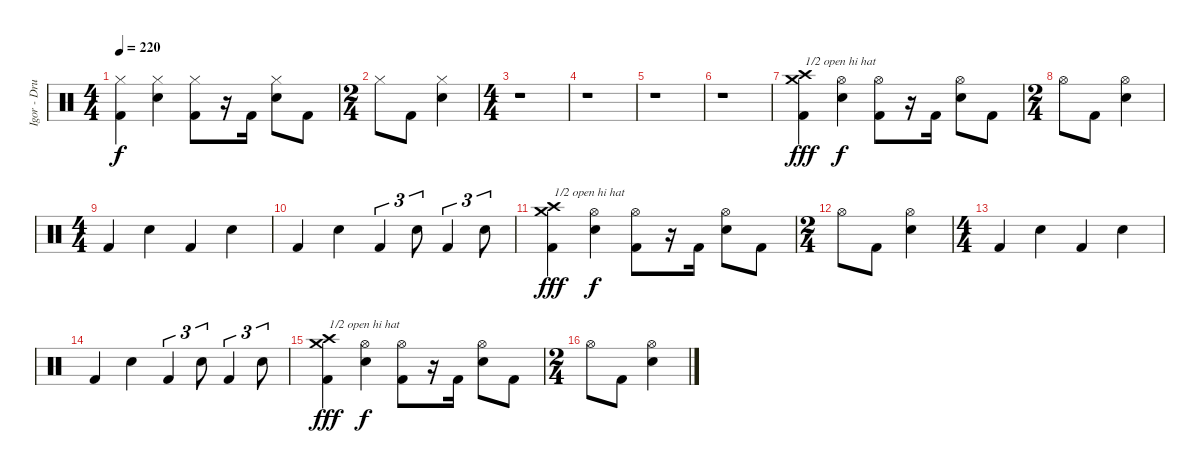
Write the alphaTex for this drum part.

\track ("Igor - Drums" "Igor - Dru") {instrument percussion}
\staff {score}
\articulation defaults
\ts (4 4)
\tempo 220
\clef neutral
\ks c
("Hi-Hat (closed)" "Kick (hit) 2").4{dy f} ("Hi-Hat (closed)" "Electric Snare (hit)").4 ("Hi-Hat (closed)" "Kick (hit) 2").8 r.16 "Kick (hit) 2".16 ("Hi-Hat (closed)" "Electric Snare (hit)").8 "Kick (hit) 2".8 |
\ts (2 4)
"Hi-Hat (closed)".8 "Kick (hit) 2".8 ("Hi-Hat (closed)" "Electric Snare (hit)").4 |
\ts (4 4)
r.1 |
r.1 |
r.1 |
r.1 |
("Crash high (hit)" "Crash medium (hit)" "Kick (hit) 2").4{txt "1/2 open hi hat" dy fff} ("Hi-Hat (open)" "Electric Snare (hit)").4{dy f} ("Hi-Hat (open)" "Kick (hit) 2").8 r.16 "Kick (hit) 2".16 ("Hi-Hat (open)" "Electric Snare (hit)").8 "Kick (hit) 2".8 |
\ts (2 4)
"Hi-Hat (open)".8 "Kick (hit) 2".8 ("Hi-Hat (open)" "Electric Snare (hit)").4 |
\ts (4 4)
"Kick (hit) 2".4 "Electric Snare (hit)".4 "Kick (hit) 2".4 "Electric Snare (hit)".4 |
"Kick (hit) 2".4 "Electric Snare (hit)".4 "Kick (hit) 2".4{tu (3 2)} "Electric Snare (hit)".8{tu (3 2)} "Kick (hit) 2".4{tu (3 2)} "Electric Snare (hit)".8{tu (3 2)} |
("Crash high (hit)" "Crash medium (hit)" "Kick (hit) 2").4{txt "1/2 open hi hat" dy fff} ("Hi-Hat (open)" "Electric Snare (hit)").4{dy f} ("Hi-Hat (open)" "Kick (hit) 2").8 r.16 "Kick (hit) 2".16 ("Hi-Hat (open)" "Electric Snare (hit)").8 "Kick (hit) 2".8 |
\ts (2 4)
"Hi-Hat (open)".8 "Kick (hit) 2".8 ("Hi-Hat (open)" "Electric Snare (hit)").4 |
\ts (4 4)
"Kick (hit) 2".4 "Electric Snare (hit)".4 "Kick (hit) 2".4 "Electric Snare (hit)".4 |
"Kick (hit) 2".4 "Electric Snare (hit)".4 "Kick (hit) 2".4{tu (3 2)} "Electric Snare (hit)".8{tu (3 2)} "Kick (hit) 2".4{tu (3 2)} "Electric Snare (hit)".8{tu (3 2)} |
("Crash high (hit)" "Crash medium (hit)" "Kick (hit) 2").4{txt "1/2 open hi hat" dy fff} ("Hi-Hat (open)" "Snare (hit) 2").4{dy f} ("Hi-Hat (open)" "Kick (hit) 2").8 r.16 "Kick (hit) 2".16 ("Hi-Hat (open)" "Snare (hit) 2").8 "Kick (hit) 2".8 |
\ts (2 4)
"Hi-Hat (open)".8 "Kick (hit) 2".8 ("Hi-Hat (open)" "Snare (hit) 2").4
